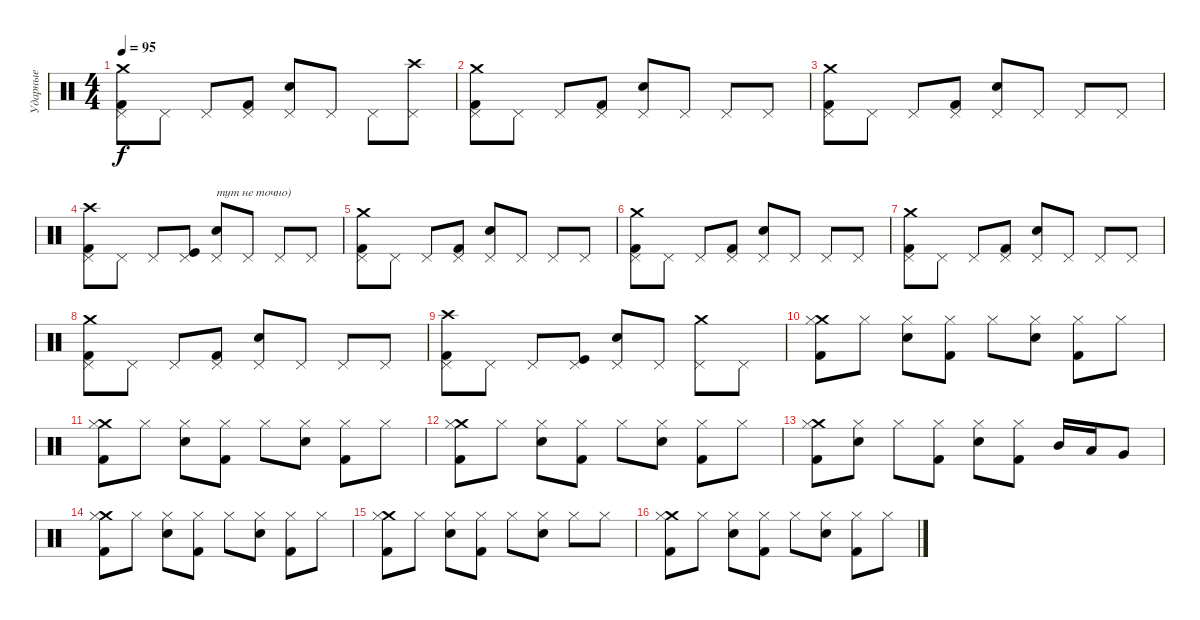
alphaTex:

\track ("Ударные" "Ударные") {instrument percussion}
\staff {score}
\articulation defaults
\ts (4 4)
\tempo 95
\clef neutral
\ks c
("Crash medium (hit)" "Pedal Hi-Hat (hit)" "Kick (hit) 2").8{dy f} "Pedal Hi-Hat (hit)".8 "Pedal Hi-Hat (hit)".8 ("Pedal Hi-Hat (hit)" "Kick (hit) 2").8 ("Pedal Hi-Hat (hit)" "Electric Snare (hit)").8 "Pedal Hi-Hat (hit)".8 "Pedal Hi-Hat (hit)".8 ("Crash high (hit)" "Pedal Hi-Hat (hit)").8 |
("Crash medium (hit)" "Pedal Hi-Hat (hit)" "Kick (hit) 2").8 "Pedal Hi-Hat (hit)".8 "Pedal Hi-Hat (hit)".8 ("Pedal Hi-Hat (hit)" "Kick (hit) 2").8 ("Pedal Hi-Hat (hit)" "Electric Snare (hit)").8 "Pedal Hi-Hat (hit)".8 "Pedal Hi-Hat (hit)".8 "Pedal Hi-Hat (hit)".8 |
("Crash medium (hit)" "Pedal Hi-Hat (hit)" "Kick (hit) 2").8 "Pedal Hi-Hat (hit)".8 "Pedal Hi-Hat (hit)".8 ("Pedal Hi-Hat (hit)" "Kick (hit) 2").8 ("Pedal Hi-Hat (hit)" "Electric Snare (hit)").8 "Pedal Hi-Hat (hit)".8 "Pedal Hi-Hat (hit)".8 "Pedal Hi-Hat (hit)".8 |
("Crash high (hit)" "Pedal Hi-Hat (hit)" "Kick (hit) 2").8 "Pedal Hi-Hat (hit)".8 "Pedal Hi-Hat (hit)".8 ("Pedal Hi-Hat (hit)" "Kick (hit)").8 ("Pedal Hi-Hat (hit)" "Electric Snare (hit)").8{txt "тут не точно)"} "Pedal Hi-Hat (hit)".8 "Pedal Hi-Hat (hit)".8 "Pedal Hi-Hat (hit)".8 |
("Crash medium (hit)" "Pedal Hi-Hat (hit)" "Kick (hit) 2").8 "Pedal Hi-Hat (hit)".8 "Pedal Hi-Hat (hit)".8 ("Pedal Hi-Hat (hit)" "Kick (hit) 2").8 ("Pedal Hi-Hat (hit)" "Electric Snare (hit)").8 "Pedal Hi-Hat (hit)".8 "Pedal Hi-Hat (hit)".8 "Pedal Hi-Hat (hit)".8 |
("Crash medium (hit)" "Pedal Hi-Hat (hit)" "Kick (hit) 2").8 "Pedal Hi-Hat (hit)".8 "Pedal Hi-Hat (hit)".8 ("Pedal Hi-Hat (hit)" "Kick (hit) 2").8 ("Pedal Hi-Hat (hit)" "Electric Snare (hit)").8 "Pedal Hi-Hat (hit)".8 "Pedal Hi-Hat (hit)".8 "Pedal Hi-Hat (hit)".8 |
("Crash medium (hit)" "Pedal Hi-Hat (hit)" "Kick (hit) 2").8 "Pedal Hi-Hat (hit)".8 "Pedal Hi-Hat (hit)".8 ("Pedal Hi-Hat (hit)" "Kick (hit) 2").8 ("Pedal Hi-Hat (hit)" "Electric Snare (hit)").8 "Pedal Hi-Hat (hit)".8 "Pedal Hi-Hat (hit)".8 "Pedal Hi-Hat (hit)".8 |
("Crash medium (hit)" "Pedal Hi-Hat (hit)" "Kick (hit) 2").8 "Pedal Hi-Hat (hit)".8 "Pedal Hi-Hat (hit)".8 ("Pedal Hi-Hat (hit)" "Kick (hit) 2").8 ("Pedal Hi-Hat (hit)" "Electric Snare (hit)").8 "Pedal Hi-Hat (hit)".8 "Pedal Hi-Hat (hit)".8 "Pedal Hi-Hat (hit)".8 |
("Crash high (hit)" "Pedal Hi-Hat (hit)" "Kick (hit) 2").8 "Pedal Hi-Hat (hit)".8 "Pedal Hi-Hat (hit)".8 ("Pedal Hi-Hat (hit)" "Kick (hit)").8 ("Pedal Hi-Hat (hit)" "Electric Snare (hit)").8 "Pedal Hi-Hat (hit)".8 ("Crash medium (hit)" "Pedal Hi-Hat (hit)").8 "Pedal Hi-Hat (hit)".8 |
("Crash medium (hit)" "Hi-Hat (closed)" "Kick (hit) 2").8 "Hi-Hat (closed)".8 ("Hi-Hat (closed)" "Electric Snare (hit)").8 ("Hi-Hat (closed)" "Kick (hit) 2").8 "Hi-Hat (closed)".8 ("Hi-Hat (closed)" "Electric Snare (hit)").8 ("Hi-Hat (closed)" "Kick (hit) 2").8 "Hi-Hat (closed)".8 |
("Crash medium (hit)" "Hi-Hat (closed)" "Kick (hit) 2").8 "Hi-Hat (closed)".8 ("Hi-Hat (closed)" "Electric Snare (hit)").8 ("Hi-Hat (closed)" "Kick (hit) 2").8 "Hi-Hat (closed)".8 ("Hi-Hat (closed)" "Electric Snare (hit)").8 ("Hi-Hat (closed)" "Kick (hit) 2").8 "Hi-Hat (closed)".8 |
("Crash medium (hit)" "Hi-Hat (closed)" "Kick (hit) 2").8 "Hi-Hat (closed)".8 ("Hi-Hat (closed)" "Electric Snare (hit)").8 ("Hi-Hat (closed)" "Kick (hit) 2").8 "Hi-Hat (closed)".8 ("Hi-Hat (closed)" "Electric Snare (hit)").8 ("Hi-Hat (closed)" "Kick (hit) 2").8 "Hi-Hat (closed)".8 |
("Crash medium (hit)" "Hi-Hat (closed)" "Kick (hit) 2").8 ("Hi-Hat (closed)" "Electric Snare (hit)").8 "Hi-Hat (closed)".8 ("Hi-Hat (closed)" "Kick (hit) 2").8 ("Hi-Hat (closed)" "Electric Snare (hit)").8 ("Hi-Hat (closed)" "Kick (hit) 2").8 "Mid Tom (hit)".16 "Low Tom (hit)".16 "Very Low Tom (hit)".8 |
("Crash medium (hit)" "Hi-Hat (closed)" "Kick (hit) 2").8 "Hi-Hat (closed)".8 ("Hi-Hat (closed)" "Electric Snare (hit)").8 ("Hi-Hat (closed)" "Kick (hit) 2").8 "Hi-Hat (closed)".8 ("Hi-Hat (closed)" "Electric Snare (hit)").8 ("Hi-Hat (closed)" "Kick (hit) 2").8 "Hi-Hat (closed)".8 |
("Crash medium (hit)" "Hi-Hat (closed)" "Kick (hit) 2").8 "Hi-Hat (closed)".8 ("Hi-Hat (closed)" "Electric Snare (hit)").8 ("Hi-Hat (closed)" "Kick (hit) 2").8 "Hi-Hat (closed)".8 ("Hi-Hat (closed)" "Electric Snare (hit)").8 "Hi-Hat (closed)".8 "Hi-Hat (closed)".8 |
("Crash medium (hit)" "Hi-Hat (closed)" "Kick (hit) 2").8 "Hi-Hat (closed)".8 ("Hi-Hat (closed)" "Electric Snare (hit)").8 ("Hi-Hat (closed)" "Kick (hit) 2").8 "Hi-Hat (closed)".8 ("Hi-Hat (closed)" "Electric Snare (hit)").8 ("Hi-Hat (closed)" "Kick (hit) 2").8 "Hi-Hat (closed)".8
